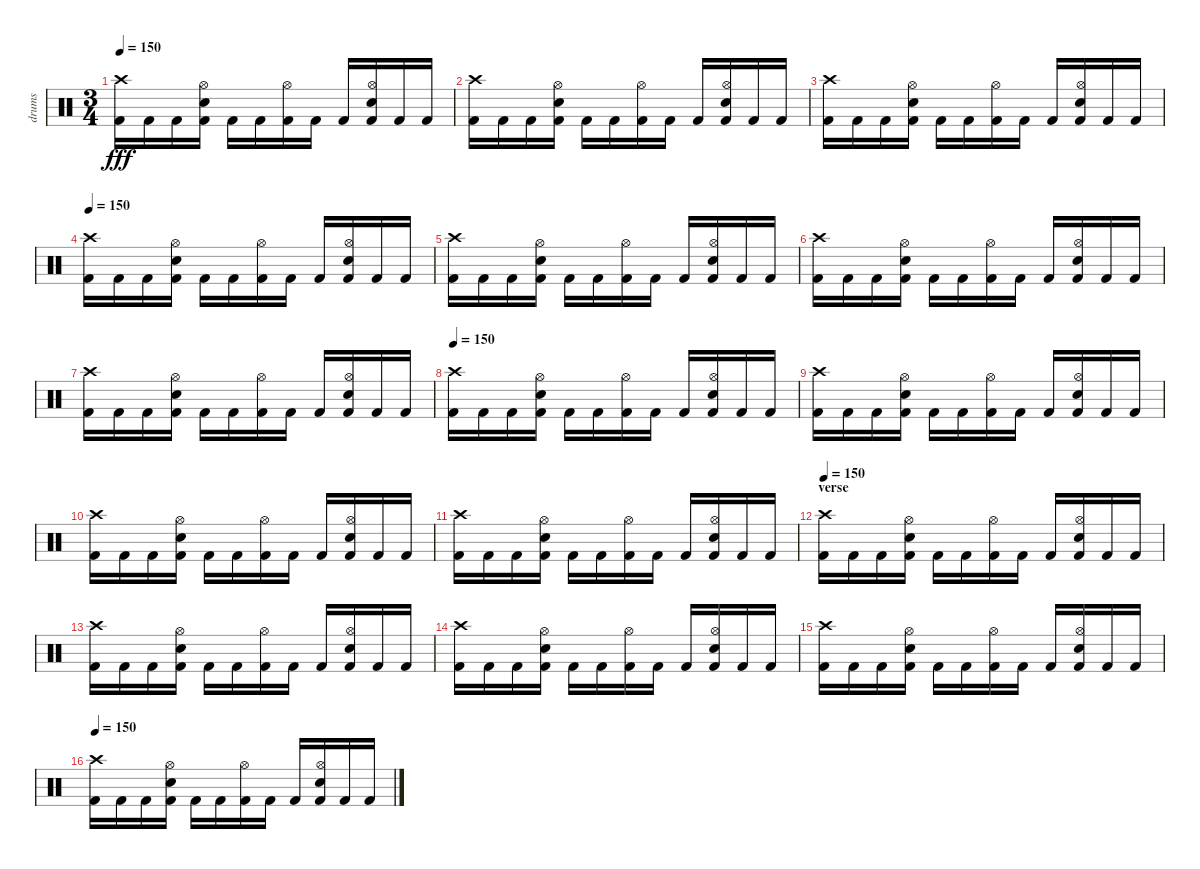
\track ("drums" "drums") {instrument percussion}
\staff {score}
\articulation defaults
\ts (3 4)
\tempo 150
\clef neutral
\ks c
("Crash high (hit)" "Kick (hit) 2").16{dy fff} "Kick (hit) 2".16 "Kick (hit) 2".16 ("Hi-Hat (open)" "Snare (hit) 2" "Kick (hit) 2").16 "Kick (hit) 2".16 "Kick (hit) 2".16 ("Hi-Hat (open)" "Kick (hit) 2").16 "Kick (hit) 2".16 "Kick (hit) 2".16 ("Hi-Hat (open)" "Snare (hit) 2" "Kick (hit) 2").16 "Kick (hit) 2".16 "Kick (hit) 2".16 |
("Crash high (hit)" "Kick (hit) 2").16 "Kick (hit) 2".16 "Kick (hit) 2".16 ("Hi-Hat (open)" "Snare (hit) 2" "Kick (hit) 2").16 "Kick (hit) 2".16 "Kick (hit) 2".16 ("Hi-Hat (open)" "Kick (hit) 2").16 "Kick (hit) 2".16 "Kick (hit) 2".16 ("Hi-Hat (open)" "Snare (hit) 2" "Kick (hit) 2").16 "Kick (hit) 2".16 "Kick (hit) 2".16 |
("Crash high (hit)" "Kick (hit) 2").16 "Kick (hit) 2".16 "Kick (hit) 2".16 ("Hi-Hat (open)" "Snare (hit) 2" "Kick (hit) 2").16 "Kick (hit) 2".16 "Kick (hit) 2".16 ("Hi-Hat (open)" "Kick (hit) 2").16 "Kick (hit) 2".16 "Kick (hit) 2".16 ("Hi-Hat (open)" "Snare (hit) 2" "Kick (hit) 2").16 "Kick (hit) 2".16 "Kick (hit) 2".16 |
\tempo 150
("Crash high (hit)" "Kick (hit) 2").16 "Kick (hit) 2".16 "Kick (hit) 2".16 ("Hi-Hat (open)" "Snare (hit) 2" "Kick (hit) 2").16 "Kick (hit) 2".16 "Kick (hit) 2".16 ("Hi-Hat (open)" "Kick (hit) 2").16 "Kick (hit) 2".16 "Kick (hit) 2".16 ("Hi-Hat (open)" "Snare (hit) 2" "Kick (hit) 2").16 "Kick (hit) 2".16 "Kick (hit) 2".16 |
("Crash high (hit)" "Kick (hit) 2").16 "Kick (hit) 2".16 "Kick (hit) 2".16 ("Hi-Hat (open)" "Snare (hit) 2" "Kick (hit) 2").16 "Kick (hit) 2".16 "Kick (hit) 2".16 ("Hi-Hat (open)" "Kick (hit) 2").16 "Kick (hit) 2".16 "Kick (hit) 2".16 ("Hi-Hat (open)" "Snare (hit) 2" "Kick (hit) 2").16 "Kick (hit) 2".16 "Kick (hit) 2".16 |
("Crash high (hit)" "Kick (hit) 2").16 "Kick (hit) 2".16 "Kick (hit) 2".16 ("Hi-Hat (open)" "Snare (hit) 2" "Kick (hit) 2").16 "Kick (hit) 2".16 "Kick (hit) 2".16 ("Hi-Hat (open)" "Kick (hit) 2").16 "Kick (hit) 2".16 "Kick (hit) 2".16 ("Hi-Hat (open)" "Snare (hit) 2" "Kick (hit) 2").16 "Kick (hit) 2".16 "Kick (hit) 2".16 |
("Crash high (hit)" "Kick (hit) 2").16 "Kick (hit) 2".16 "Kick (hit) 2".16 ("Hi-Hat (open)" "Snare (hit) 2" "Kick (hit) 2").16 "Kick (hit) 2".16 "Kick (hit) 2".16 ("Hi-Hat (open)" "Kick (hit) 2").16 "Kick (hit) 2".16 "Kick (hit) 2".16 ("Hi-Hat (open)" "Snare (hit) 2" "Kick (hit) 2").16 "Kick (hit) 2".16 "Kick (hit) 2".16 |
\tempo 150
("Crash high (hit)" "Kick (hit) 2").16 "Kick (hit) 2".16 "Kick (hit) 2".16 ("Hi-Hat (open)" "Snare (hit) 2" "Kick (hit) 2").16 "Kick (hit) 2".16 "Kick (hit) 2".16 ("Hi-Hat (open)" "Kick (hit) 2").16 "Kick (hit) 2".16 "Kick (hit) 2".16 ("Hi-Hat (open)" "Snare (hit) 2" "Kick (hit) 2").16 "Kick (hit) 2".16 "Kick (hit) 2".16 |
("Crash high (hit)" "Kick (hit) 2").16 "Kick (hit) 2".16 "Kick (hit) 2".16 ("Hi-Hat (open)" "Snare (hit) 2" "Kick (hit) 2").16 "Kick (hit) 2".16 "Kick (hit) 2".16 ("Hi-Hat (open)" "Kick (hit) 2").16 "Kick (hit) 2".16 "Kick (hit) 2".16 ("Hi-Hat (open)" "Snare (hit) 2" "Kick (hit) 2").16 "Kick (hit) 2".16 "Kick (hit) 2".16 |
("Crash high (hit)" "Kick (hit) 2").16 "Kick (hit) 2".16 "Kick (hit) 2".16 ("Hi-Hat (open)" "Snare (hit) 2" "Kick (hit) 2").16 "Kick (hit) 2".16 "Kick (hit) 2".16 ("Hi-Hat (open)" "Kick (hit) 2").16 "Kick (hit) 2".16 "Kick (hit) 2".16 ("Hi-Hat (open)" "Snare (hit) 2" "Kick (hit) 2").16 "Kick (hit) 2".16 "Kick (hit) 2".16 |
("Crash high (hit)" "Kick (hit) 2").16 "Kick (hit) 2".16 "Kick (hit) 2".16 ("Hi-Hat (open)" "Snare (hit) 2" "Kick (hit) 2").16 "Kick (hit) 2".16 "Kick (hit) 2".16 ("Hi-Hat (open)" "Kick (hit) 2").16 "Kick (hit) 2".16 "Kick (hit) 2".16 ("Hi-Hat (open)" "Snare (hit) 2" "Kick (hit) 2").16 "Kick (hit) 2".16 "Kick (hit) 2".16 |
\section ("" "verse")
\tempo 150
("Crash high (hit)" "Kick (hit) 2").16 "Kick (hit) 2".16 "Kick (hit) 2".16 ("Hi-Hat (open)" "Snare (hit) 2" "Kick (hit) 2").16 "Kick (hit) 2".16 "Kick (hit) 2".16 ("Hi-Hat (open)" "Kick (hit) 2").16 "Kick (hit) 2".16 "Kick (hit) 2".16 ("Hi-Hat (open)" "Snare (hit) 2" "Kick (hit) 2").16 "Kick (hit) 2".16 "Kick (hit) 2".16 |
("Crash high (hit)" "Kick (hit) 2").16 "Kick (hit) 2".16 "Kick (hit) 2".16 ("Hi-Hat (open)" "Snare (hit) 2" "Kick (hit) 2").16 "Kick (hit) 2".16 "Kick (hit) 2".16 ("Hi-Hat (open)" "Kick (hit) 2").16 "Kick (hit) 2".16 "Kick (hit) 2".16 ("Hi-Hat (open)" "Snare (hit) 2" "Kick (hit) 2").16 "Kick (hit) 2".16 "Kick (hit) 2".16 |
("Crash high (hit)" "Kick (hit) 2").16 "Kick (hit) 2".16 "Kick (hit) 2".16 ("Hi-Hat (open)" "Snare (hit) 2" "Kick (hit) 2").16 "Kick (hit) 2".16 "Kick (hit) 2".16 ("Hi-Hat (open)" "Kick (hit) 2").16 "Kick (hit) 2".16 "Kick (hit) 2".16 ("Hi-Hat (open)" "Snare (hit) 2" "Kick (hit) 2").16 "Kick (hit) 2".16 "Kick (hit) 2".16 |
("Crash high (hit)" "Kick (hit) 2").16 "Kick (hit) 2".16 "Kick (hit) 2".16 ("Hi-Hat (open)" "Snare (hit) 2" "Kick (hit) 2").16 "Kick (hit) 2".16 "Kick (hit) 2".16 ("Hi-Hat (open)" "Kick (hit) 2").16 "Kick (hit) 2".16 "Kick (hit) 2".16 ("Hi-Hat (open)" "Snare (hit) 2" "Kick (hit) 2").16 "Kick (hit) 2".16 "Kick (hit) 2".16 |
\tempo 150
("Crash high (hit)" "Kick (hit) 2").16 "Kick (hit) 2".16 "Kick (hit) 2".16 ("Hi-Hat (open)" "Snare (hit) 2" "Kick (hit) 2").16 "Kick (hit) 2".16 "Kick (hit) 2".16 ("Hi-Hat (open)" "Kick (hit) 2").16 "Kick (hit) 2".16 "Kick (hit) 2".16 ("Hi-Hat (open)" "Snare (hit) 2" "Kick (hit) 2").16 "Kick (hit) 2".16 "Kick (hit) 2".16
